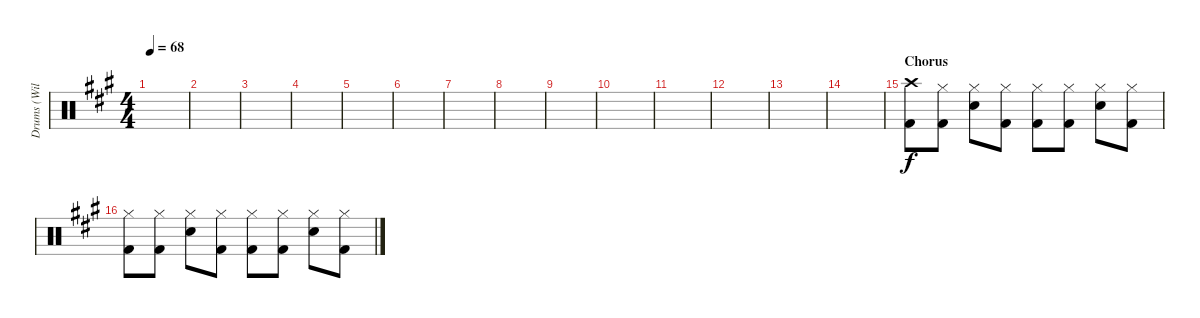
\track ("Drums (Will Champion)" "Drums (Wil") {instrument percussion}
\staff {score}
\articulation defaults
\ts (4 4)
\tempo 68
\clef neutral
\ks a
|
|
|
|
|
|
|
|
|
|
|
|
|
|
\section ("" "Chorus")
("Kick (hit) 2" "Crash high (hit)").8 ("Kick (hit) 2" "Hi-Hat (closed)").8 ("Snare (hit) 2" "Hi-Hat (closed)").8 ("Kick (hit) 2" "Hi-Hat (closed)").8 ("Kick (hit) 2" "Hi-Hat (closed)").8 ("Kick (hit) 2" "Hi-Hat (closed)").8 ("Snare (hit) 2" "Hi-Hat (closed)").8 ("Kick (hit) 2" "Hi-Hat (closed)").8 |
("Kick (hit) 2" "Hi-Hat (closed)").8 ("Kick (hit) 2" "Hi-Hat (closed)").8 ("Snare (hit) 2" "Hi-Hat (closed)").8 ("Kick (hit) 2" "Hi-Hat (closed)").8 ("Kick (hit) 2" "Hi-Hat (closed)").8 ("Kick (hit) 2" "Hi-Hat (closed)").8 ("Snare (hit) 2" "Hi-Hat (closed)").8 ("Kick (hit) 2" "Hi-Hat (closed)").8
